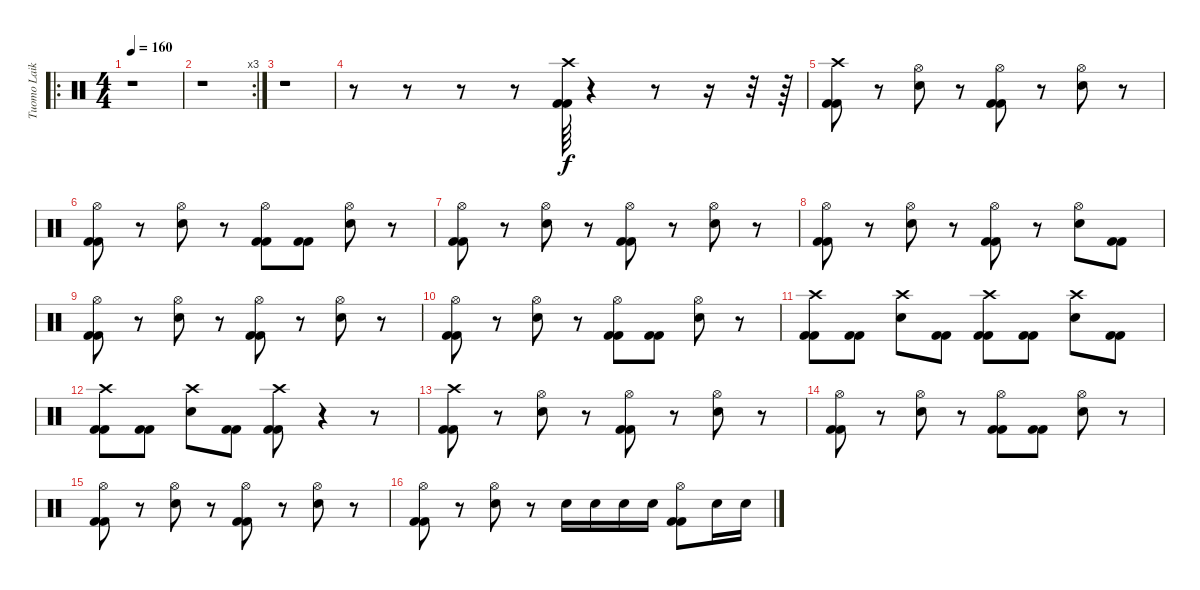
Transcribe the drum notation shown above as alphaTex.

\track ("Tuomo Laikari" "Tuomo Laik") {instrument percussion}
\staff {score}
\articulation defaults
\ro
\ts (4 4)
\tempo 160
\clef neutral
\ks c
r.1{dy f} |
\rc 3
r.1 |
r.1 |
r.8 r.8 r.8 r.8 ("Crash high (hit)" "Kick (hit) 2" "Kick (hit) 2").64 r.4 r.8 r.16 r.32 r.64 |
("Crash high (hit)" "Kick (hit) 2" "Kick (hit) 2").8 r.8 ("Hi-Hat (open)" "Electric Snare (hit)").8 r.8 ("Hi-Hat (open)" "Kick (hit) 2" "Kick (hit) 2").8 r.8 ("Hi-Hat (open)" "Electric Snare (hit)").8 r.8 |
("Hi-Hat (open)" "Kick (hit) 2" "Kick (hit) 2").8 r.8 ("Hi-Hat (open)" "Electric Snare (hit)").8 r.8 ("Hi-Hat (open)" "Kick (hit) 2" "Kick (hit) 2").8 ("Kick (hit) 2" "Kick (hit) 2").8 ("Hi-Hat (open)" "Electric Snare (hit)").8 r.8 |
("Hi-Hat (open)" "Kick (hit) 2" "Kick (hit) 2").8 r.8 ("Hi-Hat (open)" "Electric Snare (hit)").8 r.8 ("Hi-Hat (open)" "Kick (hit) 2" "Kick (hit) 2").8 r.8 ("Hi-Hat (open)" "Electric Snare (hit)").8 r.8 |
("Hi-Hat (open)" "Kick (hit) 2" "Kick (hit) 2").8 r.8 ("Hi-Hat (open)" "Electric Snare (hit)").8 r.8 ("Hi-Hat (open)" "Kick (hit) 2" "Kick (hit) 2").8 r.8 ("Hi-Hat (open)" "Electric Snare (hit)").8 ("Kick (hit) 2" "Kick (hit) 2").8 |
("Hi-Hat (open)" "Kick (hit) 2" "Kick (hit) 2").8 r.8 ("Hi-Hat (open)" "Electric Snare (hit)").8 r.8 ("Hi-Hat (open)" "Kick (hit) 2" "Kick (hit) 2").8 r.8 ("Hi-Hat (open)" "Electric Snare (hit)").8 r.8 |
("Hi-Hat (open)" "Kick (hit) 2" "Kick (hit) 2").8 r.8 ("Hi-Hat (open)" "Electric Snare (hit)").8 r.8 ("Hi-Hat (open)" "Kick (hit) 2" "Kick (hit) 2").8 ("Kick (hit) 2" "Kick (hit) 2").8 ("Hi-Hat (open)" "Electric Snare (hit)").8 r.8 |
("Crash high (hit)" "Kick (hit) 2" "Kick (hit) 2").8 ("Kick (hit) 2" "Kick (hit) 2").8 ("Crash high (hit)" "Electric Snare (hit)").8 ("Kick (hit) 2" "Kick (hit) 2").8 ("Crash high (hit)" "Kick (hit) 2" "Kick (hit) 2").8 ("Kick (hit) 2" "Kick (hit) 2").8 ("Crash high (hit)" "Electric Snare (hit)").8 ("Kick (hit) 2" "Kick (hit) 2").8 |
("Crash high (hit)" "Kick (hit) 2" "Kick (hit) 2").8 ("Kick (hit) 2" "Kick (hit) 2").8 ("Crash high (hit)" "Electric Snare (hit)").8 ("Kick (hit) 2" "Kick (hit) 2").8 ("Crash high (hit)" "Kick (hit) 2" "Kick (hit) 2").8 r.4 r.8 |
("Crash high (hit)" "Kick (hit) 2" "Kick (hit) 2").8 r.8 ("Hi-Hat (open)" "Electric Snare (hit)").8 r.8 ("Hi-Hat (open)" "Kick (hit) 2" "Kick (hit) 2").8 r.8 ("Hi-Hat (open)" "Electric Snare (hit)").8 r.8 |
("Hi-Hat (open)" "Kick (hit) 2" "Kick (hit) 2").8 r.8 ("Hi-Hat (open)" "Electric Snare (hit)").8 r.8 ("Hi-Hat (open)" "Kick (hit) 2" "Kick (hit) 2").8 ("Kick (hit) 2" "Kick (hit) 2").8 ("Hi-Hat (open)" "Electric Snare (hit)").8 r.8 |
("Hi-Hat (open)" "Kick (hit) 2" "Kick (hit) 2").8 r.8 ("Hi-Hat (open)" "Electric Snare (hit)").8 r.8 ("Hi-Hat (open)" "Kick (hit) 2" "Kick (hit) 2").8 r.8 ("Hi-Hat (open)" "Electric Snare (hit)").8 r.8 |
("Hi-Hat (open)" "Kick (hit) 2" "Kick (hit) 2").8 r.8 ("Hi-Hat (open)" "Electric Snare (hit)").8 r.8 "Electric Snare (hit)".16 "Electric Snare (hit)".16 "Electric Snare (hit)".16 "Electric Snare (hit)".16 ("Hi-Hat (open)" "Kick (hit) 2" "Kick (hit) 2").8 "Electric Snare (hit)".16 "Electric Snare (hit)".16
